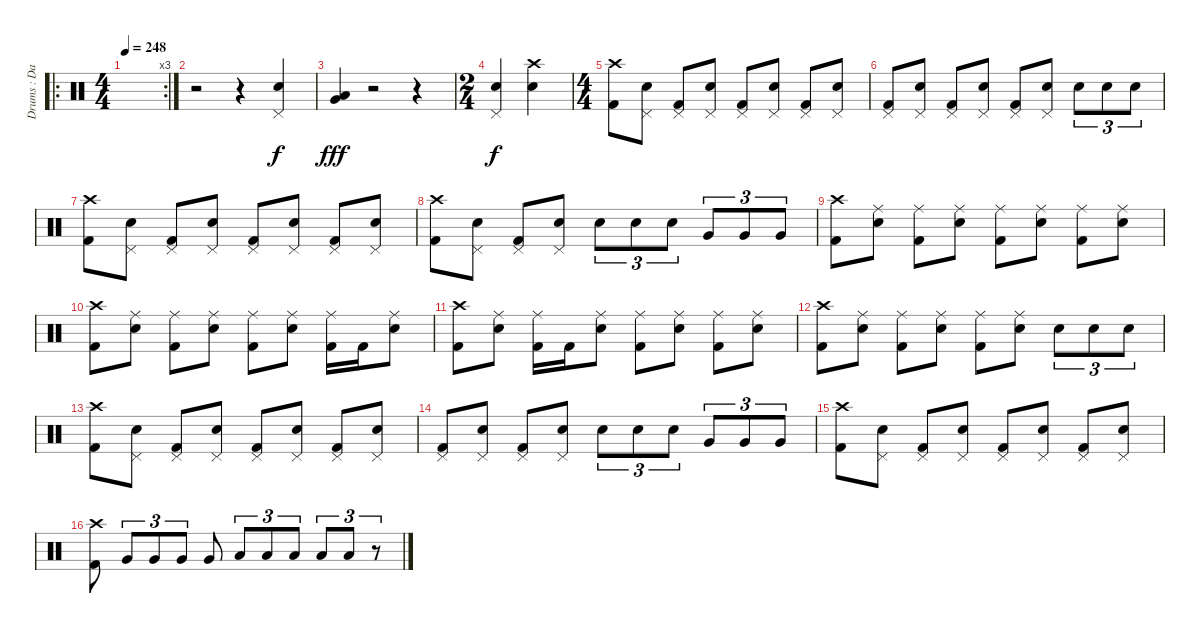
\track ("Drums : Dave Lombardo" "Drums : Da") {instrument percussion}
\staff {score}
\articulation defaults
\ro
\rc 3
\ts (4 4)
\tempo 248
\clef neutral
\ks c
|
r.2 r.4 ("Pedal Hi-Hat (hit)" "Electric Snare (hit)").4 |
("Very Low Tom (hit)" "Low Tom (hit)").4{dy fff} r.2 r.4 |
\ts (2 4)
("Pedal Hi-Hat (hit)" "Electric Snare (hit)").4{dy f} ("Crash high (hit)" "Electric Snare (hit)").4 |
\ts (4 4)
("Crash high (hit)" "Kick (hit) 2").8 ("Pedal Hi-Hat (hit)" "Electric Snare (hit)").8 ("Pedal Hi-Hat (hit)" "Kick (hit) 2").8 ("Pedal Hi-Hat (hit)" "Electric Snare (hit)").8 ("Pedal Hi-Hat (hit)" "Kick (hit) 2").8 ("Pedal Hi-Hat (hit)" "Electric Snare (hit)").8 ("Pedal Hi-Hat (hit)" "Kick (hit) 2").8 ("Pedal Hi-Hat (hit)" "Electric Snare (hit)").8 |
("Pedal Hi-Hat (hit)" "Kick (hit) 2").8 ("Pedal Hi-Hat (hit)" "Electric Snare (hit)").8 ("Pedal Hi-Hat (hit)" "Kick (hit) 2").8 ("Pedal Hi-Hat (hit)" "Electric Snare (hit)").8 ("Pedal Hi-Hat (hit)" "Kick (hit) 2").8 ("Pedal Hi-Hat (hit)" "Electric Snare (hit)").8 "Electric Snare (hit)".8{tu (3 2)} "Electric Snare (hit)".8{tu (3 2)} "Electric Snare (hit)".8{tu (3 2)} |
("Crash high (hit)" "Kick (hit) 2").8 ("Pedal Hi-Hat (hit)" "Electric Snare (hit)").8 ("Pedal Hi-Hat (hit)" "Kick (hit) 2").8 ("Pedal Hi-Hat (hit)" "Electric Snare (hit)").8 ("Pedal Hi-Hat (hit)" "Kick (hit) 2").8 ("Pedal Hi-Hat (hit)" "Electric Snare (hit)").8 ("Pedal Hi-Hat (hit)" "Kick (hit) 2").8 ("Pedal Hi-Hat (hit)" "Electric Snare (hit)").8 |
("Crash high (hit)" "Kick (hit) 2").8 ("Pedal Hi-Hat (hit)" "Electric Snare (hit)").8 ("Pedal Hi-Hat (hit)" "Kick (hit) 2").8 ("Pedal Hi-Hat (hit)" "Electric Snare (hit)").8 "Electric Snare (hit)".8{tu (3 2)} "Electric Snare (hit)".8{tu (3 2)} "Electric Snare (hit)".8{tu (3 2)} "Very Low Tom (hit)".8{tu (3 2)} "Very Low Tom (hit)".8{tu (3 2)} "Very Low Tom (hit)".8{tu (3 2)} |
("Crash high (hit)" "Kick (hit) 2").8 ("Ride (middle)" "Electric Snare (hit)").8 ("Ride (middle)" "Kick (hit) 2").8 ("Ride (middle)" "Electric Snare (hit)").8 ("Ride (middle)" "Kick (hit) 2").8 ("Ride (middle)" "Electric Snare (hit)").8 ("Ride (middle)" "Kick (hit) 2").8 ("Ride (middle)" "Electric Snare (hit)").8 |
("Crash high (hit)" "Kick (hit) 2").8 ("Ride (middle)" "Electric Snare (hit)").8 ("Ride (middle)" "Kick (hit) 2").8 ("Ride (middle)" "Electric Snare (hit)").8 ("Ride (middle)" "Kick (hit) 2").8 ("Ride (middle)" "Electric Snare (hit)").8 ("Ride (middle)" "Kick (hit) 2").16 "Kick (hit) 2".16 ("Ride (middle)" "Electric Snare (hit)").8 |
("Crash high (hit)" "Kick (hit) 2").8 ("Ride (middle)" "Electric Snare (hit)").8 ("Ride (middle)" "Kick (hit) 2").16 "Kick (hit) 2".16 ("Ride (middle)" "Electric Snare (hit)").8 ("Ride (middle)" "Kick (hit) 2").8 ("Ride (middle)" "Electric Snare (hit)").8 ("Ride (middle)" "Kick (hit) 2").8 ("Ride (middle)" "Electric Snare (hit)").8 |
("Crash high (hit)" "Kick (hit) 2").8 ("Ride (middle)" "Electric Snare (hit)").8 ("Ride (middle)" "Kick (hit) 2").8 ("Ride (middle)" "Electric Snare (hit)").8 ("Ride (middle)" "Kick (hit) 2").8 ("Ride (middle)" "Electric Snare (hit)").8 "Electric Snare (hit)".8{tu (3 2)} "Electric Snare (hit)".8{tu (3 2)} "Electric Snare (hit)".8{tu (3 2)} |
("Crash high (hit)" "Kick (hit) 2").8 ("Pedal Hi-Hat (hit)" "Electric Snare (hit)").8 ("Pedal Hi-Hat (hit)" "Kick (hit) 2").8 ("Pedal Hi-Hat (hit)" "Electric Snare (hit)").8 ("Pedal Hi-Hat (hit)" "Kick (hit) 2").8 ("Pedal Hi-Hat (hit)" "Electric Snare (hit)").8 ("Pedal Hi-Hat (hit)" "Kick (hit) 2").8 ("Pedal Hi-Hat (hit)" "Electric Snare (hit)").8 |
("Pedal Hi-Hat (hit)" "Kick (hit) 2").8 ("Pedal Hi-Hat (hit)" "Electric Snare (hit)").8 ("Pedal Hi-Hat (hit)" "Kick (hit) 2").8 ("Pedal Hi-Hat (hit)" "Electric Snare (hit)").8 "Electric Snare (hit)".8{tu (3 2)} "Electric Snare (hit)".8{tu (3 2)} "Electric Snare (hit)".8{tu (3 2)} "Very Low Tom (hit)".8{tu (3 2)} "Very Low Tom (hit)".8{tu (3 2)} "Very Low Tom (hit)".8{tu (3 2)} |
("Crash high (hit)" "Kick (hit) 2").8 ("Pedal Hi-Hat (hit)" "Electric Snare (hit)").8 ("Pedal Hi-Hat (hit)" "Kick (hit) 2").8 ("Pedal Hi-Hat (hit)" "Electric Snare (hit)").8 ("Pedal Hi-Hat (hit)" "Kick (hit) 2").8 ("Pedal Hi-Hat (hit)" "Electric Snare (hit)").8 ("Pedal Hi-Hat (hit)" "Kick (hit) 2").8 ("Pedal Hi-Hat (hit)" "Electric Snare (hit)").8 |
("Crash high (hit)" "Kick (hit) 2").8 "Very Low Tom (hit)".8{tu (3 2)} "Very Low Tom (hit)".8{tu (3 2)} "Very Low Tom (hit)".8{tu (3 2)} "Very Low Tom (hit)".8 "Low Tom (hit)".8{tu (3 2)} "Low Tom (hit)".8{tu (3 2)} "Low Tom (hit)".8{tu (3 2)} "Low Tom (hit)".8{tu (3 2)} "Low Tom (hit)".8{tu (3 2)} r.8{tu (3 2)}
